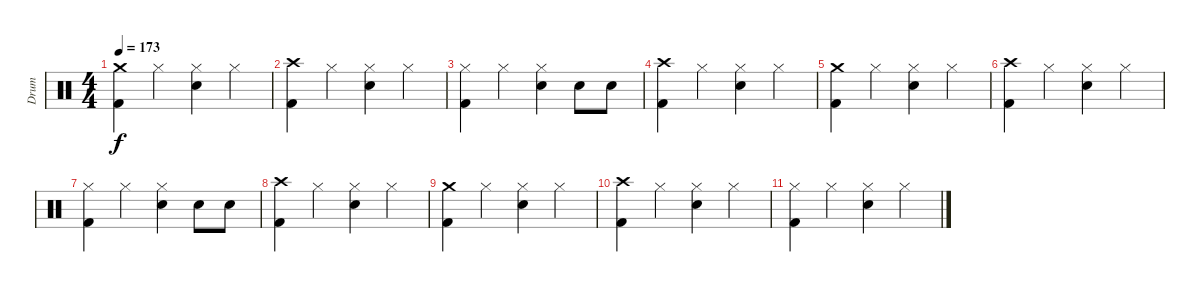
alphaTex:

\track ("Drum" "Drum") {instrument percussion}
\staff {score}
\articulation defaults
\ts (4 4)
\tempo 173
\clef neutral
\ks c
("Crash medium (hit)" "Kick (hit) 2").4{dy f} "Hi-Hat (closed)".4 ("Hi-Hat (closed)" "Electric Snare (hit)").4 "Hi-Hat (closed)".4 |
("Crash high (hit)" "Kick (hit) 2").4 "Hi-Hat (closed)".4 ("Hi-Hat (closed)" "Electric Snare (hit)").4 "Hi-Hat (closed)".4 |
("Hi-Hat (closed)" "Kick (hit) 2").4 "Hi-Hat (closed)".4 ("Hi-Hat (closed)" "Electric Snare (hit)").4 "Electric Snare (hit)".8 "Electric Snare (hit)".8 |
("Crash high (hit)" "Kick (hit) 2").4 "Hi-Hat (closed)".4 ("Hi-Hat (closed)" "Electric Snare (hit)").4 "Hi-Hat (closed)".4 |
("Crash medium (hit)" "Kick (hit) 2").4 "Hi-Hat (closed)".4 ("Hi-Hat (closed)" "Electric Snare (hit)").4 "Hi-Hat (closed)".4 |
("Crash high (hit)" "Kick (hit) 2").4 "Hi-Hat (closed)".4 ("Hi-Hat (closed)" "Electric Snare (hit)").4 "Hi-Hat (closed)".4 |
("Hi-Hat (closed)" "Kick (hit) 2").4 "Hi-Hat (closed)".4 ("Hi-Hat (closed)" "Electric Snare (hit)").4 "Electric Snare (hit)".8 "Electric Snare (hit)".8 |
("Crash high (hit)" "Kick (hit) 2").4 "Hi-Hat (closed)".4 ("Hi-Hat (closed)" "Electric Snare (hit)").4 "Hi-Hat (closed)".4 |
("Crash medium (hit)" "Kick (hit) 2").4 "Hi-Hat (closed)".4 ("Hi-Hat (closed)" "Electric Snare (hit)").4 "Hi-Hat (closed)".4 |
("Crash high (hit)" "Kick (hit) 2").4 "Hi-Hat (closed)".4 ("Hi-Hat (closed)" "Electric Snare (hit)").4 "Hi-Hat (closed)".4 |
("Hi-Hat (closed)" "Kick (hit) 2").4 "Hi-Hat (closed)".4 ("Hi-Hat (closed)" "Electric Snare (hit)").4 "Hi-Hat (closed)".4
